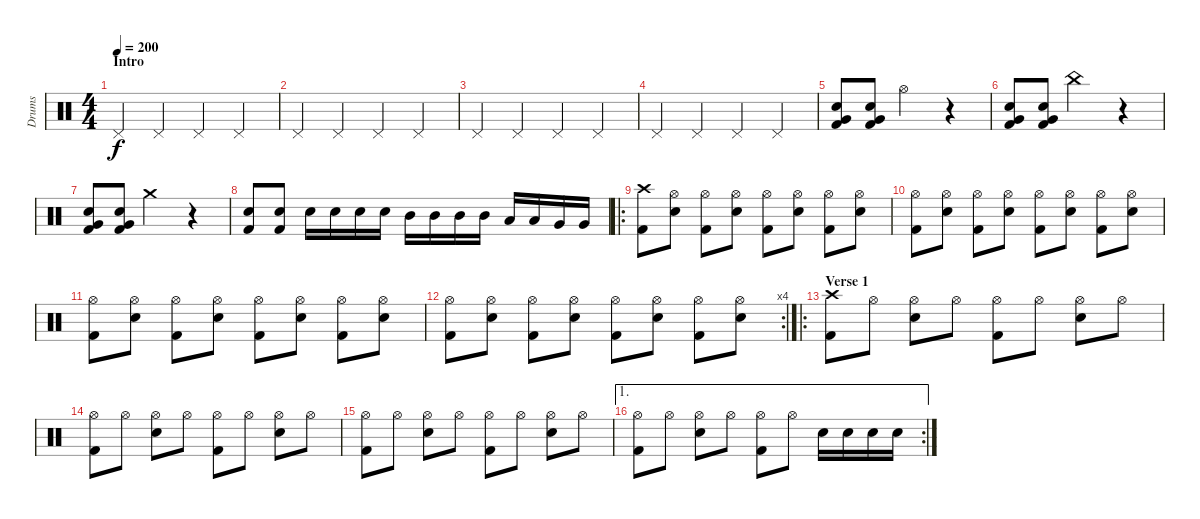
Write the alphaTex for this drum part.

\track ("Drums" "Drums") {instrument percussion}
\staff {score}
\articulation defaults
\ts (4 4)
\section ("" "Intro")
\tempo 200
\clef neutral
\ks c "Pedal Hi-Hat (hit)".4{dy f} "Pedal Hi-Hat (hit)".4 "Pedal Hi-Hat (hit)".4 "Pedal Hi-Hat (hit)".4
|
"Pedal Hi-Hat (hit)".4 "Pedal Hi-Hat (hit)".4 "Pedal Hi-Hat (hit)".4 "Pedal Hi-Hat (hit)".4 |
"Pedal Hi-Hat (hit)".4 "Pedal Hi-Hat (hit)".4 "Pedal Hi-Hat (hit)".4 "Pedal Hi-Hat (hit)".4 |
"Pedal Hi-Hat (hit)".4 "Pedal Hi-Hat (hit)".4 "Pedal Hi-Hat (hit)".4 "Pedal Hi-Hat (hit)".4 |
("Electric Snare (hit)" "Very Low Tom (hit)" "Kick (hit) 2").8 ("Electric Snare (hit)" "Very Low Tom (hit)" "Kick (hit) 2").8 "Hi-Hat (open)".2 r.4 |
("Electric Snare (hit)" "Very Low Tom (hit)" "Kick (hit) 2").8 ("Electric Snare (hit)" "Very Low Tom (hit)" "Kick (hit) 2").8 "China (hit)".2 r.4 |
("Electric Snare (hit)" "Very Low Tom (hit)" "Kick (hit) 2").8 ("Electric Snare (hit)" "Very Low Tom (hit)" "Kick (hit) 2").8 "Crash medium (hit)".2 r.4 |
("Electric Snare (hit)" "Kick (hit) 2").8 ("Electric Snare (hit)" "Kick (hit) 2").8 "Electric Snare (hit)".16 "Electric Snare (hit)".16 "Electric Snare (hit)".16 "Electric Snare (hit)".16 "Mid Tom (hit)".16 "Mid Tom (hit)".16 "Mid Tom (hit)".16 "Mid Tom (hit)".16 "Low Tom (hit)".16 "Low Tom (hit)".16 "Very Low Tom (hit)".16 "Very Low Tom (hit)".16 |
\ro
("Crash high (hit)" "Kick (hit) 2").8 ("Hi-Hat (open)" "Electric Snare (hit)").8 ("Hi-Hat (open)" "Kick (hit) 2").8 ("Hi-Hat (open)" "Electric Snare (hit)").8 ("Hi-Hat (open)" "Kick (hit) 2").8 ("Hi-Hat (open)" "Electric Snare (hit)").8 ("Hi-Hat (open)" "Kick (hit) 2").8 ("Hi-Hat (open)" "Electric Snare (hit)").8 |
("Hi-Hat (open)" "Kick (hit) 2").8 ("Hi-Hat (open)" "Electric Snare (hit)").8 ("Hi-Hat (open)" "Kick (hit) 2").8 ("Hi-Hat (open)" "Electric Snare (hit)").8 ("Hi-Hat (open)" "Kick (hit) 2").8 ("Hi-Hat (open)" "Electric Snare (hit)").8 ("Hi-Hat (open)" "Kick (hit) 2").8 ("Hi-Hat (open)" "Electric Snare (hit)").8 |
("Hi-Hat (open)" "Kick (hit) 2").8 ("Hi-Hat (open)" "Electric Snare (hit)").8 ("Hi-Hat (open)" "Kick (hit) 2").8 ("Hi-Hat (open)" "Electric Snare (hit)").8 ("Hi-Hat (open)" "Kick (hit) 2").8 ("Hi-Hat (open)" "Electric Snare (hit)").8 ("Hi-Hat (open)" "Kick (hit) 2").8 ("Hi-Hat (open)" "Electric Snare (hit)").8 |
\rc 4
("Hi-Hat (open)" "Kick (hit) 2").8 ("Hi-Hat (open)" "Electric Snare (hit)").8 ("Hi-Hat (open)" "Kick (hit) 2").8 ("Hi-Hat (open)" "Electric Snare (hit)").8 ("Hi-Hat (open)" "Kick (hit) 2").8 ("Hi-Hat (open)" "Electric Snare (hit)").8 ("Hi-Hat (open)" "Kick (hit) 2").8 ("Hi-Hat (open)" "Electric Snare (hit)").8 |
\ro
\section ("" "Verse 1")
("Crash high (hit)" "Kick (hit) 2").8 "Hi-Hat (open)".8 ("Hi-Hat (open)" "Electric Snare (hit)").8 "Hi-Hat (open)".8 ("Hi-Hat (open)" "Kick (hit) 2").8 "Hi-Hat (open)".8 ("Hi-Hat (open)" "Electric Snare (hit)").8 "Hi-Hat (open)".8 |
("Hi-Hat (open)" "Kick (hit) 2").8 "Hi-Hat (open)".8 ("Hi-Hat (open)" "Electric Snare (hit)").8 "Hi-Hat (open)".8 ("Hi-Hat (open)" "Kick (hit) 2").8 "Hi-Hat (open)".8 ("Hi-Hat (open)" "Electric Snare (hit)").8 "Hi-Hat (open)".8 |
("Hi-Hat (open)" "Kick (hit) 2").8 "Hi-Hat (open)".8 ("Hi-Hat (open)" "Electric Snare (hit)").8 "Hi-Hat (open)".8 ("Hi-Hat (open)" "Kick (hit) 2").8 "Hi-Hat (open)".8 ("Hi-Hat (open)" "Electric Snare (hit)").8 "Hi-Hat (open)".8 |
\ae 1
\rc 2
("Hi-Hat (open)" "Kick (hit) 2").8 "Hi-Hat (open)".8 ("Hi-Hat (open)" "Electric Snare (hit)").8 "Hi-Hat (open)".8 ("Hi-Hat (open)" "Kick (hit) 2").8 "Hi-Hat (open)".8 "Electric Snare (hit)".16 "Electric Snare (hit)".16 "Electric Snare (hit)".16 "Electric Snare (hit)".16
